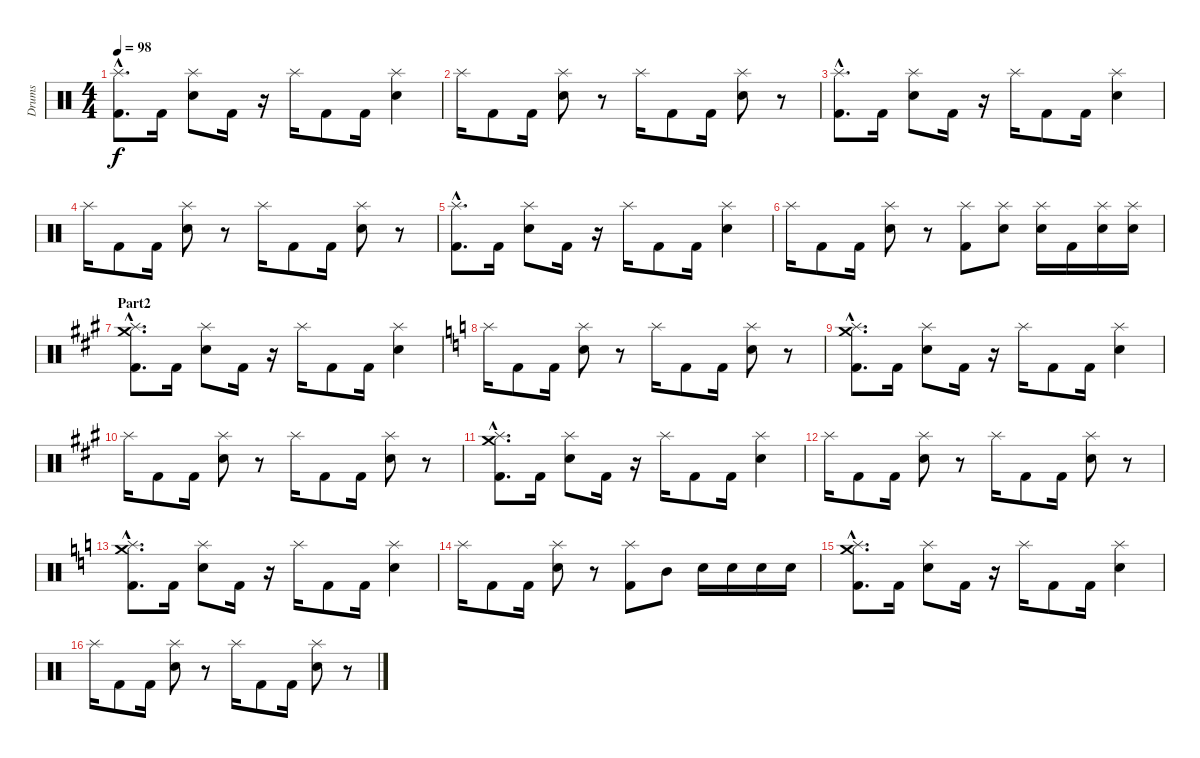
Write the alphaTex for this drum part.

\track ("Drums" "Drums") {instrument percussion}
\staff {score}
\articulation defaults
\ts (4 4)
\tempo 98
\clef neutral
\ks c
("Splash (hit)"{hac} "Kick (hit) 2"{hac}).8{d dy f} "Kick (hit) 2".16 ("Splash (hit)" "Snare (hit) 2").8 "Kick (hit) 2".16 r.16 "Splash (hit)".16 "Kick (hit) 2".8 "Kick (hit) 2".16 ("Splash (hit)" "Snare (hit) 2").4 |
"Splash (hit)".16 "Kick (hit) 2".8 "Kick (hit) 2".16 ("Splash (hit)" "Snare (hit) 2").8 r.8 "Splash (hit)".16 "Kick (hit) 2".8 "Kick (hit) 2".16 ("Splash (hit)" "Snare (hit) 2").8 r.8 |
("Splash (hit)"{hac} "Kick (hit) 2"{hac}).8{d} "Kick (hit) 2".16 ("Splash (hit)" "Snare (hit) 2").8 "Kick (hit) 2".16 r.16 "Splash (hit)".16 "Kick (hit) 2".8 "Kick (hit) 2".16 ("Splash (hit)" "Snare (hit) 2").4 |
"Splash (hit)".16 "Kick (hit) 2".8 "Kick (hit) 2".16 ("Splash (hit)" "Snare (hit) 2").8 r.8 "Splash (hit)".16 "Kick (hit) 2".8 "Kick (hit) 2".16 ("Splash (hit)" "Snare (hit) 2").8 r.8 |
("Splash (hit)"{hac} "Kick (hit) 2"{hac}).8{d} "Kick (hit) 2".16 ("Splash (hit)" "Snare (hit) 2").8 "Kick (hit) 2".16 r.16 "Splash (hit)".16 "Kick (hit) 2".8 "Kick (hit) 2".16 ("Splash (hit)" "Snare (hit) 2").4 |
"Splash (hit)".16 "Kick (hit) 2".8 "Kick (hit) 2".16 ("Splash (hit)" "Snare (hit) 2").8 r.8 ("Splash (hit)" "Kick (hit) 2").8 ("Splash (hit)" "Snare (hit) 2").8 ("Splash (hit)" "Snare (hit) 2").16 "Kick (hit) 2".16 ("Splash (hit)" "Snare (hit) 2").16 ("Splash (hit)" "Snare (hit) 2").16 |
\section ("" "Part2")
\ks a
("Splash (hit)"{hac} "Crash medium (hit)"{hac} "Kick (hit) 2"{hac}).8{d} "Kick (hit) 2".16 ("Splash (hit)" "Snare (hit) 2").8 "Kick (hit) 2".16 r.16 "Splash (hit)".16 "Kick (hit) 2".8 "Kick (hit) 2".16 ("Splash (hit)" "Snare (hit) 2").4 |
\ks c "Splash (hit)".16 "Kick (hit) 2".8 "Kick (hit) 2".16
("Splash (hit)" "Snare (hit) 2").8 r.8 "Splash (hit)".16 "Kick (hit) 2".8 "Kick (hit) 2".16 ("Splash (hit)" "Snare (hit) 2").8 r.8 |
("Splash (hit)"{hac} "Crash medium (hit)"{hac} "Kick (hit) 2"{hac}).8{d} "Kick (hit) 2".16 ("Splash (hit)" "Snare (hit) 2").8 "Kick (hit) 2".16 r.16 "Splash (hit)".16 "Kick (hit) 2".8 "Kick (hit) 2".16 ("Splash (hit)" "Snare (hit) 2").4 |
\ks a "Splash (hit)".16 "Kick (hit) 2".8 "Kick (hit) 2".16
("Splash (hit)" "Snare (hit) 2").8 r.8 "Splash (hit)".16 "Kick (hit) 2".8 "Kick (hit) 2".16 ("Splash (hit)" "Snare (hit) 2").8 r.8 |
("Splash (hit)"{hac} "Crash medium (hit)"{hac} "Kick (hit) 2"{hac}).8{d} "Kick (hit) 2".16 ("Splash (hit)" "Snare (hit) 2").8 "Kick (hit) 2".16 r.16 "Splash (hit)".16 "Kick (hit) 2".8 "Kick (hit) 2".16 ("Splash (hit)" "Snare (hit) 2").4 |
"Splash (hit)".16 "Kick (hit) 2".8 "Kick (hit) 2".16 ("Splash (hit)" "Snare (hit) 2").8 r.8 "Splash (hit)".16 "Kick (hit) 2".8 "Kick (hit) 2".16 ("Splash (hit)" "Snare (hit) 2").8 r.8 |
\ks c
("Splash (hit)"{hac} "Crash medium (hit)"{hac} "Kick (hit) 2"{hac}).8{d} "Kick (hit) 2".16 ("Splash (hit)" "Snare (hit) 2").8 "Kick (hit) 2".16 r.16 "Splash (hit)".16 "Kick (hit) 2".8 "Kick (hit) 2".16 ("Splash (hit)" "Snare (hit) 2").4 |
"Splash (hit)".16 "Kick (hit) 2".8 "Kick (hit) 2".16 ("Splash (hit)" "Snare (hit) 2").8 r.8 ("Splash (hit)" "Kick (hit) 2").8 "Mid Tom (hit)".8 "Snare (hit) 2".16 "Snare (hit) 2".16 "Snare (hit) 2".16 "Snare (hit) 2".16 |
("Splash (hit)"{hac} "Crash medium (hit)"{hac} "Kick (hit) 2"{hac}).8{d} "Kick (hit) 2".16 ("Splash (hit)" "Snare (hit) 2").8 "Kick (hit) 2".16 r.16 "Splash (hit)".16 "Kick (hit) 2".8 "Kick (hit) 2".16 ("Splash (hit)" "Snare (hit) 2").4 |
"Splash (hit)".16 "Kick (hit) 2".8 "Kick (hit) 2".16 ("Splash (hit)" "Snare (hit) 2").8 r.8 "Splash (hit)".16 "Kick (hit) 2".8 "Kick (hit) 2".16 ("Splash (hit)" "Snare (hit) 2").8 r.8
